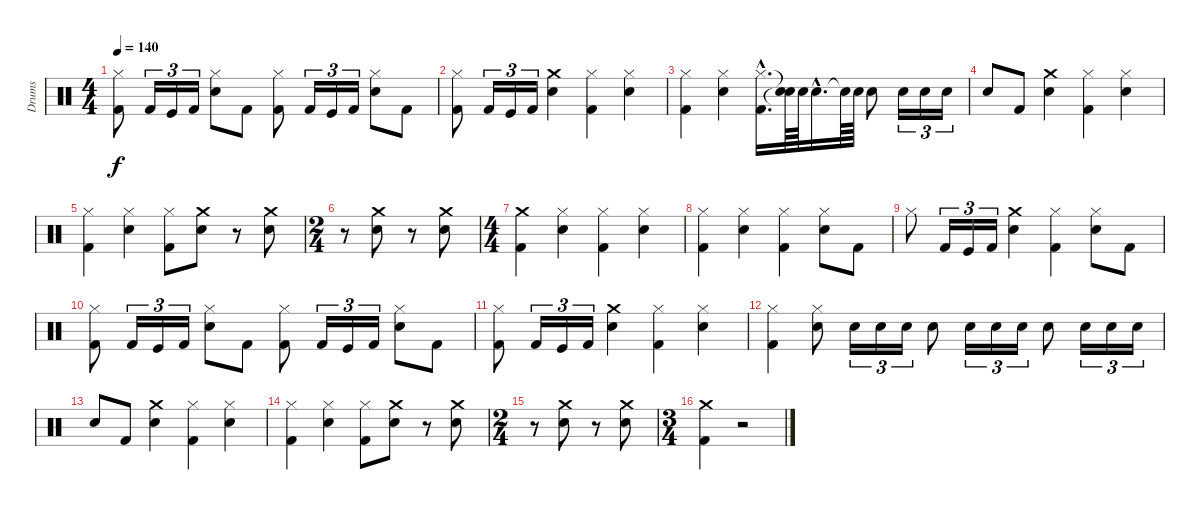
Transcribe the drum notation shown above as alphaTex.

\track ("Drums" "Drums") {instrument percussion}
\staff {score}
\articulation defaults
\ts (4 4)
\tempo 140
\clef neutral
\ks c
("Kick (hit) 2" "Hi-Hat (closed)").8{dy f} "Kick (hit) 2".16{tu (3 2)} "Kick (hit)".16{tu (3 2)} "Kick (hit) 2".16{tu (3 2)} ("Snare (hit) 2" "Hi-Hat (closed)").8 "Kick (hit) 2".8 ("Kick (hit) 2" "Hi-Hat (closed)").8 "Kick (hit) 2".16{tu (3 2)} "Kick (hit)".16{tu (3 2)} "Kick (hit) 2".16{tu (3 2)} ("Snare (hit) 2" "Hi-Hat (closed)").8 "Kick (hit) 2".8 |
("Hi-Hat (closed)" "Kick (hit) 2").8 "Kick (hit) 2".16{tu (3 2)} "Kick (hit)".16{tu (3 2)} "Kick (hit) 2".16{tu (3 2)} ("Snare (hit) 2" "Crash medium (hit)").4 ("Kick (hit) 2" "Hi-Hat (closed)").4 ("Hi-Hat (closed)" "Snare (hit) 2").4 |
("Kick (hit) 2" "Hi-Hat (closed)").4 ("Snare (hit) 2" "Hi-Hat (closed)").4 ("Hi-Hat (closed)"{hac} "Kick (hit) 2"{hac}).16{d} ("Snare (hit)"{t} "Snare (hit)"{t}).64 "Snare (hit) 2".64 "Snare (hit) 2"{hac}.16{d} "Snare (hit)"{t}.64 "Snare (hit) 2".64 "Snare (hit) 2".8 "Snare (hit) 2".16{tu (3 2)} "Snare (hit) 2".16{tu (3 2)} "Snare (hit) 2".16{tu (3 2)} |
"Snare (hit) 2".8 "Kick (hit) 2".8 ("Crash medium (hit)" "Snare (hit) 2").4 ("Kick (hit) 2" "Hi-Hat (closed)").4 ("Snare (hit) 2" "Hi-Hat (closed)").4 |
("Kick (hit) 2" "Hi-Hat (closed)").4 ("Snare (hit) 2" "Hi-Hat (closed)").4 ("Kick (hit) 2" "Hi-Hat (closed)").8 ("Crash medium (hit)" "Snare (hit) 2").8 r.8 ("Snare (hit) 2" "Crash medium (hit)").8 |
\ts (2 4)
r.8 ("Snare (hit) 2" "Crash medium (hit)").8 r.8 ("Snare (hit) 2" "Crash medium (hit)").8 |
\ts (4 4)
("Kick (hit) 2" "Crash medium (hit)").4 ("Hi-Hat (closed)" "Snare (hit) 2").4 ("Hi-Hat (closed)" "Kick (hit) 2").4 ("Snare (hit) 2" "Hi-Hat (closed)").4 |
("Hi-Hat (closed)" "Kick (hit) 2").4 ("Hi-Hat (closed)" "Snare (hit) 2").4 ("Hi-Hat (closed)" "Kick (hit) 2").4 ("Hi-Hat (closed)" "Snare (hit) 2").8 "Kick (hit) 2".8 |
"Hi-Hat (closed)".8 "Kick (hit) 2".16{tu (3 2)} "Kick (hit)".16{tu (3 2)} "Kick (hit) 2".16{tu (3 2)} ("Snare (hit) 2" "Crash medium (hit)").4 ("Hi-Hat (closed)" "Kick (hit) 2").4 ("Snare (hit) 2" "Hi-Hat (closed)").8 "Kick (hit) 2".8 |
("Kick (hit) 2" "Hi-Hat (closed)").8 "Kick (hit) 2".16{tu (3 2)} "Kick (hit)".16{tu (3 2)} "Kick (hit) 2".16{tu (3 2)} ("Snare (hit) 2" "Hi-Hat (closed)").8 "Kick (hit) 2".8 ("Kick (hit) 2" "Hi-Hat (closed)").8 "Kick (hit) 2".16{tu (3 2)} "Kick (hit)".16{tu (3 2)} "Kick (hit) 2".16{tu (3 2)} ("Snare (hit) 2" "Hi-Hat (closed)").8 "Kick (hit) 2".8 |
("Hi-Hat (closed)" "Kick (hit) 2").8 "Kick (hit) 2".16{tu (3 2)} "Kick (hit)".16{tu (3 2)} "Kick (hit) 2".16{tu (3 2)} ("Snare (hit) 2" "Crash medium (hit)").4 ("Kick (hit) 2" "Hi-Hat (closed)").4 ("Hi-Hat (closed)" "Snare (hit) 2").4 |
("Kick (hit) 2" "Hi-Hat (closed)").4 ("Snare (hit) 2" "Hi-Hat (closed)").8 "Snare (hit) 2".16{tu (3 2)} "Snare (hit) 2".16{tu (3 2)} "Snare (hit) 2".16{tu (3 2)} "Snare (hit) 2".8 "Snare (hit) 2".16{tu (3 2)} "Snare (hit) 2".16{tu (3 2)} "Snare (hit) 2".16{tu (3 2)} "Snare (hit) 2".8 "Snare (hit) 2".16{tu (3 2)} "Snare (hit) 2".16{tu (3 2)} "Snare (hit) 2".16{tu (3 2)} |
"Snare (hit) 2".8 "Kick (hit) 2".8 ("Crash medium (hit)" "Snare (hit) 2").4 ("Kick (hit) 2" "Hi-Hat (closed)").4 ("Snare (hit) 2" "Hi-Hat (closed)").4 |
("Kick (hit) 2" "Hi-Hat (closed)").4 ("Snare (hit) 2" "Hi-Hat (closed)").4 ("Kick (hit) 2" "Hi-Hat (closed)").8 ("Crash medium (hit)" "Snare (hit) 2").8 r.8 ("Snare (hit) 2" "Crash medium (hit)").8 |
\ts (2 4)
r.8 ("Snare (hit) 2" "Crash medium (hit)").8 r.8 ("Snare (hit) 2" "Crash medium (hit)").8 |
\ts (3 4)
("Kick (hit) 2" "Crash medium (hit)").4 r.2
